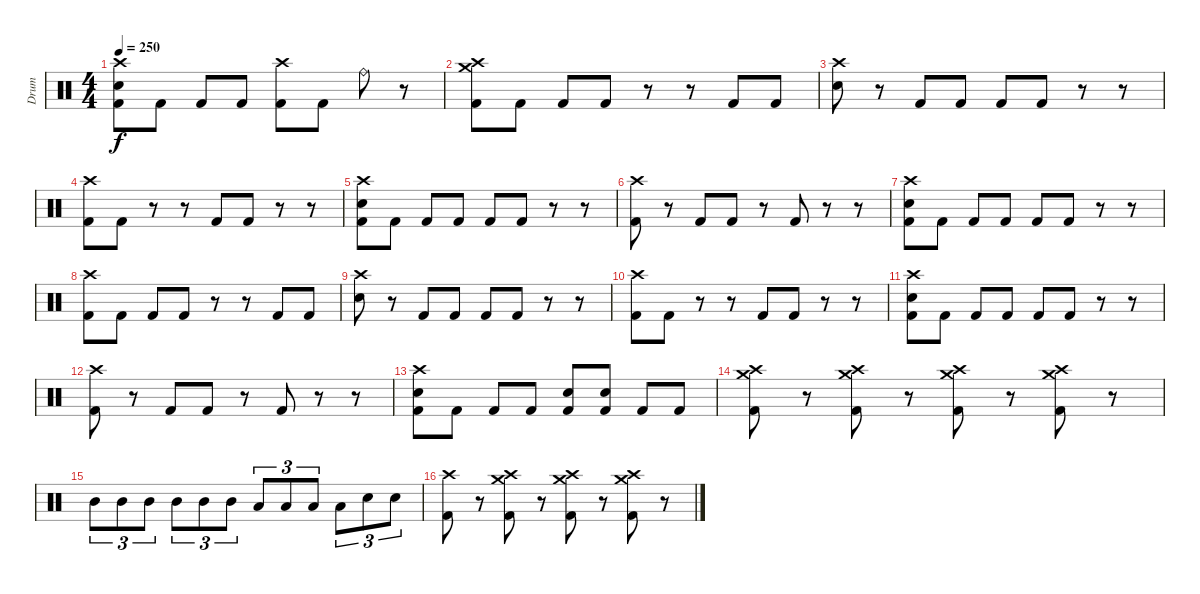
\track ("Drum" "Drum") {instrument percussion}
\staff {score}
\articulation defaults
\ts (4 4)
\tempo 250
\clef neutral
\ks c
("Crash high (hit)" "Electric Snare (hit)" "Kick (hit) 2").8{dy f} "Kick (hit) 2".8 "Kick (hit) 2".8 "Kick (hit) 2".8 ("Crash high (hit)" "Kick (hit) 2").8 "Kick (hit) 2".8 "Ride (bell)".8 r.8 |
("Crash medium (hit)" "Crash high (hit)" "Kick (hit) 2").8 "Kick (hit) 2".8 "Kick (hit) 2".8 "Kick (hit) 2".8 r.8 r.8 "Kick (hit) 2".8 "Kick (hit) 2".8 |
("Crash high (hit)" "Electric Snare (hit)").8 r.8 "Kick (hit) 2".8 "Kick (hit) 2".8 "Kick (hit) 2".8 "Kick (hit) 2".8 r.8 r.8 |
("Crash high (hit)" "Kick (hit) 2").8 "Kick (hit) 2".8 r.8 r.8 "Kick (hit) 2".8 "Kick (hit) 2".8 r.8 r.8 |
("Crash high (hit)" "Electric Snare (hit)" "Kick (hit) 2").8 "Kick (hit) 2".8 "Kick (hit) 2".8 "Kick (hit) 2".8 "Kick (hit) 2".8 "Kick (hit) 2".8 r.8 r.8 |
("Crash high (hit)" "Kick (hit) 2").8 r.8 "Kick (hit) 2".8 "Kick (hit) 2".8 r.8 "Kick (hit) 2".8 r.8 r.8 |
("Crash high (hit)" "Electric Snare (hit)" "Kick (hit) 2").8 "Kick (hit) 2".8 "Kick (hit) 2".8 "Kick (hit) 2".8 "Kick (hit) 2".8 "Kick (hit) 2".8 r.8 r.8 |
("Crash high (hit)" "Kick (hit) 2").8 "Kick (hit) 2".8 "Kick (hit) 2".8 "Kick (hit) 2".8 r.8 r.8 "Kick (hit) 2".8 "Kick (hit) 2".8 |
("Crash high (hit)" "Electric Snare (hit)").8 r.8 "Kick (hit) 2".8 "Kick (hit) 2".8 "Kick (hit) 2".8 "Kick (hit) 2".8 r.8 r.8 |
("Crash high (hit)" "Kick (hit) 2").8 "Kick (hit) 2".8 r.8 r.8 "Kick (hit) 2".8 "Kick (hit) 2".8 r.8 r.8 |
("Crash high (hit)" "Electric Snare (hit)" "Kick (hit) 2").8 "Kick (hit) 2".8 "Kick (hit) 2".8 "Kick (hit) 2".8 "Kick (hit) 2".8 "Kick (hit) 2".8 r.8 r.8 |
("Crash high (hit)" "Kick (hit) 2").8 r.8 "Kick (hit) 2".8 "Kick (hit) 2".8 r.8 "Kick (hit) 2".8 r.8 r.8 |
("Crash high (hit)" "Electric Snare (hit)" "Kick (hit) 2").8 "Kick (hit) 2".8 "Kick (hit) 2".8 "Kick (hit) 2".8 ("Electric Snare (hit)" "Kick (hit) 2").8 ("Electric Snare (hit)" "Kick (hit) 2").8 "Kick (hit) 2".8 "Kick (hit) 2".8 |
("Crash medium (hit)" "Crash high (hit)" "Kick (hit) 2").8 r.8 ("Crash medium (hit)" "Crash high (hit)" "Kick (hit) 2").8 r.8 ("Crash medium (hit)" "Crash high (hit)" "Kick (hit) 2").8 r.8 ("Crash medium (hit)" "Crash high (hit)" "Kick (hit) 2").8 r.8 |
"Mid Tom (hit)".8{tu (3 2)} "Mid Tom (hit)".8{tu (3 2)} "Mid Tom (hit)".8{tu (3 2)} "Mid Tom (hit)".8{tu (3 2)} "Mid Tom (hit)".8{tu (3 2)} "Mid Tom (hit)".8{tu (3 2)} "Low Tom (hit)".8{tu (3 2)} "Low Tom (hit)".8{tu (3 2)} "Low Tom (hit)".8{tu (3 2)} "Low Tom (hit)".8{tu (3 2)} "Electric Snare (hit)".8{tu (3 2)} "Electric Snare (hit)".8{tu (3 2)} |
("Crash high (hit)" "Kick (hit) 2").8 r.8 ("Crash medium (hit)" "Crash high (hit)" "Kick (hit) 2").8 r.8 ("Crash medium (hit)" "Crash high (hit)" "Kick (hit) 2").8 r.8 ("Crash medium (hit)" "Crash high (hit)" "Kick (hit) 2").8 r.8
